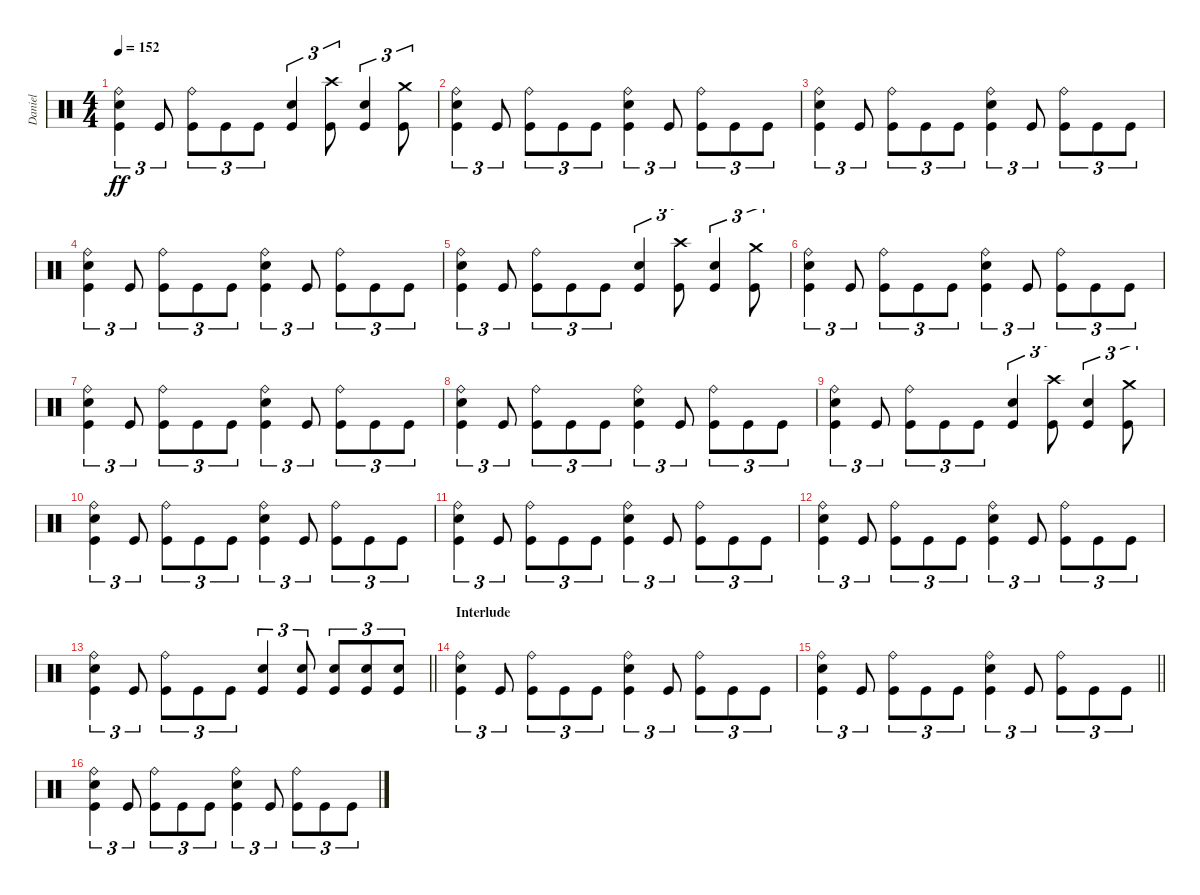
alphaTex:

\track ("Daniel" "Daniel") {instrument percussion}
\staff {score}
\articulation defaults
\ts (4 4)
\tempo 152
\clef neutral
\ks c
("Kick (hit)" "Snare (hit) 2" "Ride (bell)").4{tu (3 2) dy ff} "Kick (hit)".8{tu (3 2)} ("Kick (hit)" "Ride (bell)").8{tu (3 2)} "Kick (hit)".8{tu (3 2)} "Kick (hit)".8{tu (3 2)} ("Kick (hit)" "Snare (hit) 2").4{tu (3 2)} ("Kick (hit)" "Crash high (hit)").8{tu (3 2)} ("Kick (hit)" "Snare (hit) 2").4{tu (3 2)} ("Kick (hit)" "Crash medium (hit)").8{tu (3 2)} |
("Kick (hit)" "Snare (hit) 2" "Ride (bell)").4{tu (3 2)} "Kick (hit)".8{tu (3 2)} ("Kick (hit)" "Ride (bell)").8{tu (3 2)} "Kick (hit)".8{tu (3 2)} "Kick (hit)".8{tu (3 2)} ("Kick (hit)" "Snare (hit) 2" "Ride (bell)").4{tu (3 2)} "Kick (hit)".8{tu (3 2)} ("Kick (hit)" "Ride (bell)").8{tu (3 2)} "Kick (hit)".8{tu (3 2)} "Kick (hit)".8{tu (3 2)} |
("Kick (hit)" "Snare (hit) 2" "Ride (bell)").4{tu (3 2)} "Kick (hit)".8{tu (3 2)} ("Kick (hit)" "Ride (bell)").8{tu (3 2)} "Kick (hit)".8{tu (3 2)} "Kick (hit)".8{tu (3 2)} ("Kick (hit)" "Snare (hit) 2" "Ride (bell)").4{tu (3 2)} "Kick (hit)".8{tu (3 2)} ("Kick (hit)" "Ride (bell)").8{tu (3 2)} "Kick (hit)".8{tu (3 2)} "Kick (hit)".8{tu (3 2)} |
("Kick (hit)" "Snare (hit) 2" "Ride (bell)").4{tu (3 2)} "Kick (hit)".8{tu (3 2)} ("Kick (hit)" "Ride (bell)").8{tu (3 2)} "Kick (hit)".8{tu (3 2)} "Kick (hit)".8{tu (3 2)} ("Kick (hit)" "Snare (hit) 2" "Ride (bell)").4{tu (3 2)} "Kick (hit)".8{tu (3 2)} ("Kick (hit)" "Ride (bell)").8{tu (3 2)} "Kick (hit)".8{tu (3 2)} "Kick (hit)".8{tu (3 2)} |
("Kick (hit)" "Snare (hit) 2" "Ride (bell)").4{tu (3 2)} "Kick (hit)".8{tu (3 2)} ("Kick (hit)" "Ride (bell)").8{tu (3 2)} "Kick (hit)".8{tu (3 2)} "Kick (hit)".8{tu (3 2)} ("Kick (hit)" "Snare (hit) 2").4{tu (3 2)} ("Kick (hit)" "Crash high (hit)").8{tu (3 2)} ("Kick (hit)" "Snare (hit) 2").4{tu (3 2)} ("Kick (hit)" "Crash medium (hit)").8{tu (3 2)} |
("Kick (hit)" "Snare (hit) 2" "Ride (bell)").4{tu (3 2)} "Kick (hit)".8{tu (3 2)} ("Kick (hit)" "Ride (bell)").8{tu (3 2)} "Kick (hit)".8{tu (3 2)} "Kick (hit)".8{tu (3 2)} ("Kick (hit)" "Snare (hit) 2" "Ride (bell)").4{tu (3 2)} "Kick (hit)".8{tu (3 2)} ("Kick (hit)" "Ride (bell)").8{tu (3 2)} "Kick (hit)".8{tu (3 2)} "Kick (hit)".8{tu (3 2)} |
("Kick (hit)" "Snare (hit) 2" "Ride (bell)").4{tu (3 2)} "Kick (hit)".8{tu (3 2)} ("Kick (hit)" "Ride (bell)").8{tu (3 2)} "Kick (hit)".8{tu (3 2)} "Kick (hit)".8{tu (3 2)} ("Kick (hit)" "Snare (hit) 2" "Ride (bell)").4{tu (3 2)} "Kick (hit)".8{tu (3 2)} ("Kick (hit)" "Ride (bell)").8{tu (3 2)} "Kick (hit)".8{tu (3 2)} "Kick (hit)".8{tu (3 2)} |
("Kick (hit)" "Snare (hit) 2" "Ride (bell)").4{tu (3 2)} "Kick (hit)".8{tu (3 2)} ("Kick (hit)" "Ride (bell)").8{tu (3 2)} "Kick (hit)".8{tu (3 2)} "Kick (hit)".8{tu (3 2)} ("Kick (hit)" "Snare (hit) 2" "Ride (bell)").4{tu (3 2)} "Kick (hit)".8{tu (3 2)} ("Kick (hit)" "Ride (bell)").8{tu (3 2)} "Kick (hit)".8{tu (3 2)} "Kick (hit)".8{tu (3 2)} |
("Kick (hit)" "Snare (hit) 2" "Ride (bell)").4{tu (3 2)} "Kick (hit)".8{tu (3 2)} ("Kick (hit)" "Ride (bell)").8{tu (3 2)} "Kick (hit)".8{tu (3 2)} "Kick (hit)".8{tu (3 2)} ("Kick (hit)" "Snare (hit) 2").4{tu (3 2)} ("Kick (hit)" "Crash high (hit)").8{tu (3 2)} ("Kick (hit)" "Snare (hit) 2").4{tu (3 2)} ("Kick (hit)" "Crash medium (hit)").8{tu (3 2)} |
("Kick (hit)" "Snare (hit) 2" "Ride (bell)").4{tu (3 2)} "Kick (hit)".8{tu (3 2)} ("Kick (hit)" "Ride (bell)").8{tu (3 2)} "Kick (hit)".8{tu (3 2)} "Kick (hit)".8{tu (3 2)} ("Kick (hit)" "Snare (hit) 2" "Ride (bell)").4{tu (3 2)} "Kick (hit)".8{tu (3 2)} ("Kick (hit)" "Ride (bell)").8{tu (3 2)} "Kick (hit)".8{tu (3 2)} "Kick (hit)".8{tu (3 2)} |
("Kick (hit)" "Snare (hit) 2" "Ride (bell)").4{tu (3 2)} "Kick (hit)".8{tu (3 2)} ("Kick (hit)" "Ride (bell)").8{tu (3 2)} "Kick (hit)".8{tu (3 2)} "Kick (hit)".8{tu (3 2)} ("Kick (hit)" "Snare (hit) 2" "Ride (bell)").4{tu (3 2)} "Kick (hit)".8{tu (3 2)} ("Kick (hit)" "Ride (bell)").8{tu (3 2)} "Kick (hit)".8{tu (3 2)} "Kick (hit)".8{tu (3 2)} |
("Kick (hit)" "Snare (hit) 2" "Ride (bell)").4{tu (3 2)} "Kick (hit)".8{tu (3 2)} ("Kick (hit)" "Ride (bell)").8{tu (3 2)} "Kick (hit)".8{tu (3 2)} "Kick (hit)".8{tu (3 2)} ("Kick (hit)" "Snare (hit) 2" "Ride (bell)").4{tu (3 2)} "Kick (hit)".8{tu (3 2)} ("Kick (hit)" "Ride (bell)").8{tu (3 2)} "Kick (hit)".8{tu (3 2)} "Kick (hit)".8{tu (3 2)} |
\barLineRight lightlight
("Kick (hit)" "Snare (hit) 2" "Ride (bell)").4{tu (3 2)} "Kick (hit)".8{tu (3 2)} ("Kick (hit)" "Ride (bell)").8{tu (3 2)} "Kick (hit)".8{tu (3 2)} "Kick (hit)".8{tu (3 2)} ("Kick (hit)" "Snare (hit) 2").4{tu (3 2)} ("Kick (hit)" "Snare (hit) 2").8{tu (3 2)} ("Kick (hit)" "Snare (hit) 2").8{tu (3 2)} ("Kick (hit)" "Snare (hit) 2").8{tu (3 2)} ("Kick (hit)" "Snare (hit) 2").8{tu (3 2)} |
\section ("" "Interlude")
("Kick (hit)" "Snare (hit) 2" "Ride (bell)").4{tu (3 2)} "Kick (hit)".8{tu (3 2)} ("Kick (hit)" "Ride (bell)").8{tu (3 2)} "Kick (hit)".8{tu (3 2)} "Kick (hit)".8{tu (3 2)} ("Kick (hit)" "Snare (hit) 2" "Ride (bell)").4{tu (3 2)} "Kick (hit)".8{tu (3 2)} ("Kick (hit)" "Ride (bell)").8{tu (3 2)} "Kick (hit)".8{tu (3 2)} "Kick (hit)".8{tu (3 2)} |
\barLineRight lightlight
("Kick (hit)" "Snare (hit) 2" "Ride (bell)").4{tu (3 2)} "Kick (hit)".8{tu (3 2)} ("Kick (hit)" "Ride (bell)").8{tu (3 2)} "Kick (hit)".8{tu (3 2)} "Kick (hit)".8{tu (3 2)} ("Kick (hit)" "Snare (hit) 2" "Ride (bell)").4{tu (3 2)} "Kick (hit)".8{tu (3 2)} ("Kick (hit)" "Ride (bell)").8{tu (3 2)} "Kick (hit)".8{tu (3 2)} "Kick (hit)".8{tu (3 2)} |
("Kick (hit)" "Snare (hit) 2" "Ride (bell)").4{tu (3 2)} "Kick (hit)".8{tu (3 2)} ("Kick (hit)" "Ride (bell)").8{tu (3 2)} "Kick (hit)".8{tu (3 2)} "Kick (hit)".8{tu (3 2)} ("Kick (hit)" "Snare (hit) 2" "Ride (bell)").4{tu (3 2)} "Kick (hit)".8{tu (3 2)} ("Kick (hit)" "Ride (bell)").8{tu (3 2)} "Kick (hit)".8{tu (3 2)} "Kick (hit)".8{tu (3 2)}
